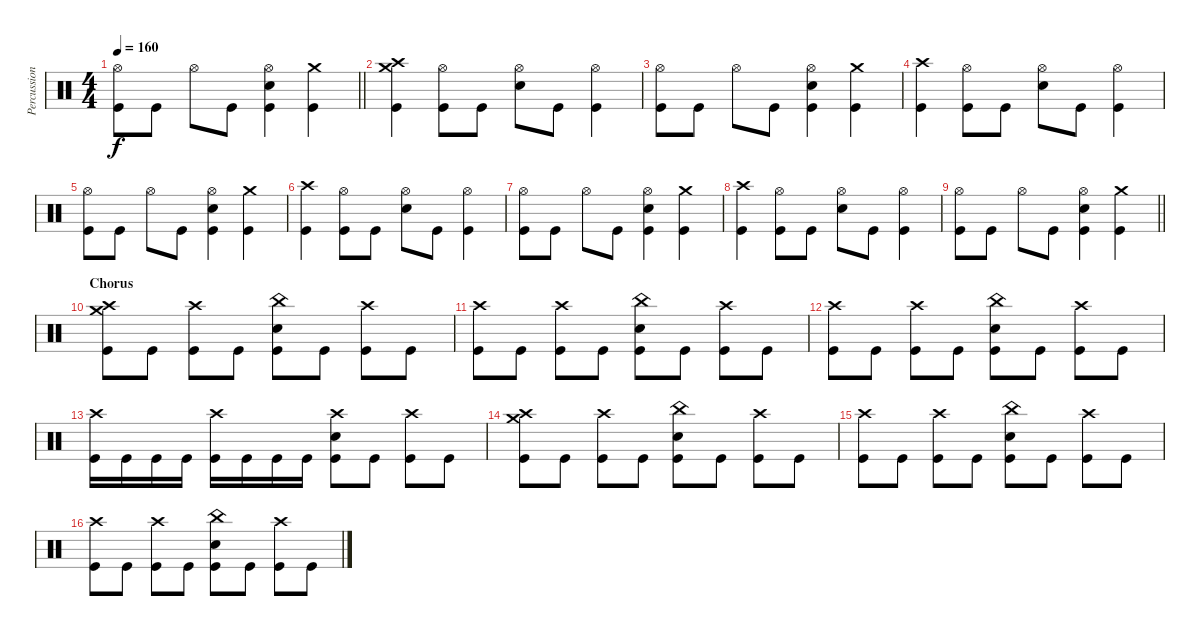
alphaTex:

\track ("Percussion" "Percussion") {instrument percussion}
\staff {score}
\articulation defaults
\ts (4 4)
\tempo 160
\clef neutral
\barLineRight lightlight
\ks c
("Hi-Hat (open)" "Kick (hit)").8{dy f} "Kick (hit)".8 "Hi-Hat (open)".8 "Kick (hit)".8 ("Hi-Hat (open)" "Electric Snare (hit)" "Kick (hit)").4 ("Crash medium (hit)" "Kick (hit)").4 |
("Crash high (hit)" "Crash medium (hit)" "Kick (hit)").4 ("Hi-Hat (open)" "Kick (hit)").8 "Kick (hit)".8 ("Hi-Hat (open)" "Electric Snare (hit)").8 "Kick (hit)".8 ("Hi-Hat (open)" "Kick (hit)").4 |
("Hi-Hat (open)" "Kick (hit)").8 "Kick (hit)".8 "Hi-Hat (open)".8 "Kick (hit)".8 ("Hi-Hat (open)" "Electric Snare (hit)" "Kick (hit)").4 ("Crash medium (hit)" "Kick (hit)").4 |
("Crash high (hit)" "Kick (hit)").4 ("Hi-Hat (open)" "Kick (hit)").8 "Kick (hit)".8 ("Hi-Hat (open)" "Electric Snare (hit)").8 "Kick (hit)".8 ("Hi-Hat (open)" "Kick (hit)").4 |
("Hi-Hat (open)" "Kick (hit)").8 "Kick (hit)".8 "Hi-Hat (open)".8 "Kick (hit)".8 ("Hi-Hat (open)" "Electric Snare (hit)" "Kick (hit)").4 ("Crash medium (hit)" "Kick (hit)").4 |
("Crash high (hit)" "Kick (hit)").4 ("Hi-Hat (open)" "Kick (hit)").8 "Kick (hit)".8 ("Hi-Hat (open)" "Electric Snare (hit)").8 "Kick (hit)".8 ("Hi-Hat (open)" "Kick (hit)").4 |
("Hi-Hat (open)" "Kick (hit)").8 "Kick (hit)".8 "Hi-Hat (open)".8 "Kick (hit)".8 ("Hi-Hat (open)" "Electric Snare (hit)" "Kick (hit)").4 ("Crash medium (hit)" "Kick (hit)").4 |
("Crash high (hit)" "Kick (hit)").4 ("Hi-Hat (open)" "Kick (hit)").8 "Kick (hit)".8 ("Hi-Hat (open)" "Electric Snare (hit)").8 "Kick (hit)".8 ("Hi-Hat (open)" "Kick (hit)").4 |
\barLineRight lightlight
("Hi-Hat (open)" "Kick (hit)").8 "Kick (hit)".8 "Hi-Hat (open)".8 "Kick (hit)".8 ("Hi-Hat (open)" "Electric Snare (hit)" "Kick (hit)").4 ("Crash medium (hit)" "Kick (hit)").4 |
\section ("" "Chorus")
("Crash medium (hit)" "Crash high (hit)" "Kick (hit)").8 "Kick (hit)".8 ("Crash high (hit)" "Kick (hit)").8 "Kick (hit)".8 ("China (hit)" "Electric Snare (hit)" "Kick (hit)").8 "Kick (hit)".8 ("Crash high (hit)" "Kick (hit)").8 "Kick (hit)".8 |
("Crash high (hit)" "Kick (hit)").8 "Kick (hit)".8 ("Crash high (hit)" "Kick (hit)").8 "Kick (hit)".8 ("China (hit)" "Electric Snare (hit)" "Kick (hit)").8 "Kick (hit)".8 ("Crash high (hit)" "Kick (hit)").8 "Kick (hit)".8 |
("Crash high (hit)" "Kick (hit)").8 "Kick (hit)".8 ("Crash high (hit)" "Kick (hit)").8 "Kick (hit)".8 ("China (hit)" "Electric Snare (hit)" "Kick (hit)").8 "Kick (hit)".8 ("Crash high (hit)" "Kick (hit)").8 "Kick (hit)".8 |
("Crash high (hit)" "Kick (hit)").16 "Kick (hit)".16 "Kick (hit)".16 "Kick (hit)".16 ("Crash high (hit)" "Kick (hit)").16 "Kick (hit)".16 "Kick (hit)".16 "Kick (hit)".16 ("Crash high (hit)" "Electric Snare (hit)" "Kick (hit)").8 "Kick (hit)".8 ("Crash high (hit)" "Kick (hit)").8 "Kick (hit)".8 |
("Crash medium (hit)" "Crash high (hit)" "Kick (hit)").8 "Kick (hit)".8 ("Crash high (hit)" "Kick (hit)").8 "Kick (hit)".8 ("China (hit)" "Electric Snare (hit)" "Kick (hit)").8 "Kick (hit)".8 ("Crash high (hit)" "Kick (hit)").8 "Kick (hit)".8 |
("Crash high (hit)" "Kick (hit)").8 "Kick (hit)".8 ("Crash high (hit)" "Kick (hit)").8 "Kick (hit)".8 ("China (hit)" "Electric Snare (hit)" "Kick (hit)").8 "Kick (hit)".8 ("Crash high (hit)" "Kick (hit)").8 "Kick (hit)".8 |
("Crash high (hit)" "Kick (hit)").8 "Kick (hit)".8 ("Crash high (hit)" "Kick (hit)").8 "Kick (hit)".8 ("China (hit)" "Electric Snare (hit)" "Kick (hit)").8 "Kick (hit)".8 ("Crash high (hit)" "Kick (hit)").8 "Kick (hit)".8
